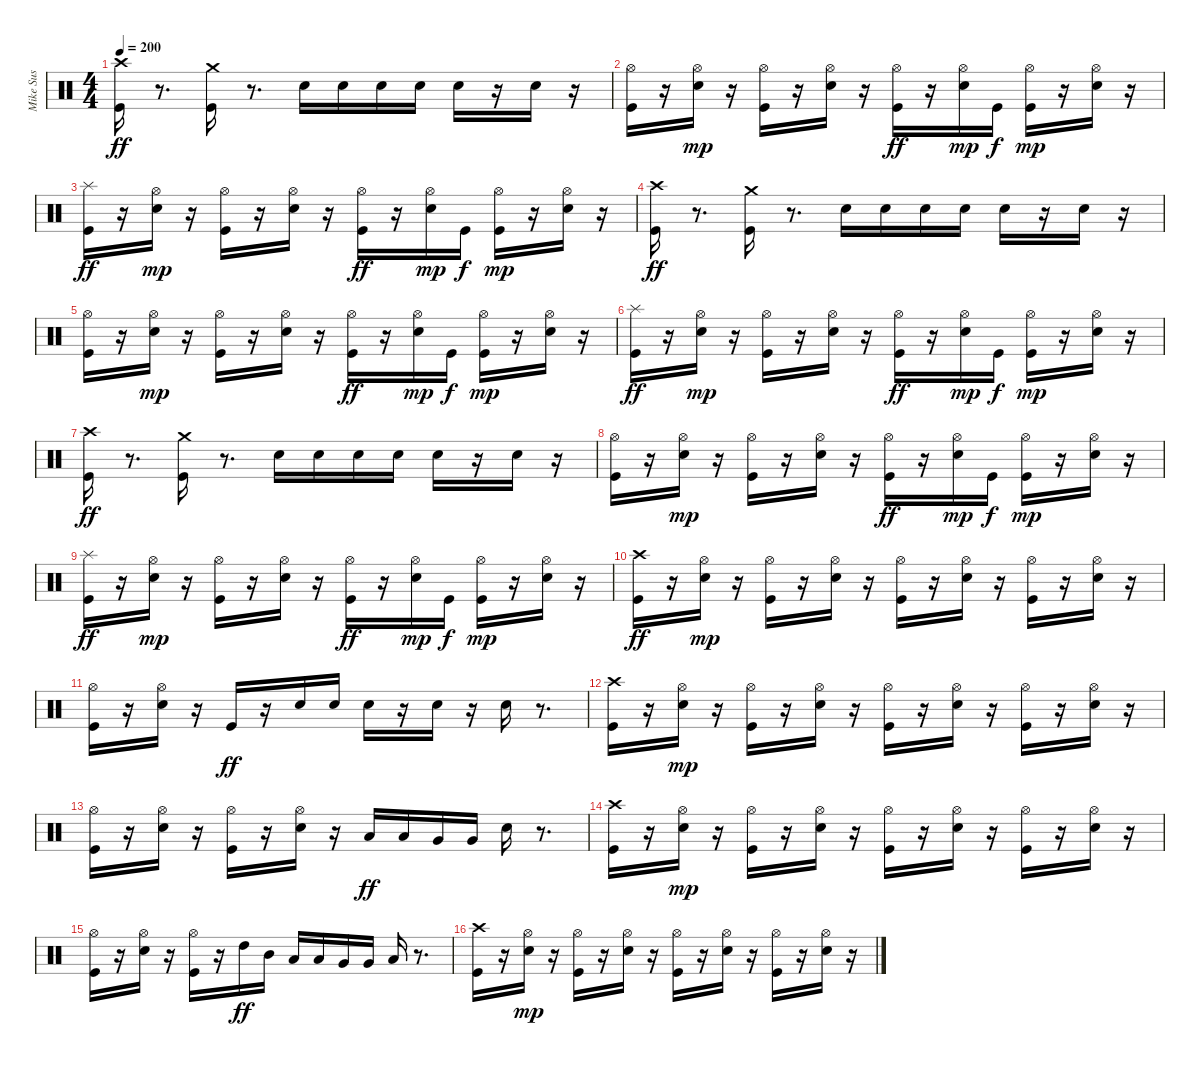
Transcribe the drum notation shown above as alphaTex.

\track ("Mike Sus" "Mike Sus") {instrument percussion}
\staff {score}
\articulation defaults
\ts (4 4)
\tempo 200
\clef neutral
\ks c
("Kick (hit)" "Crash high (hit)").16{dy ff} r.8{d} ("Kick (hit)" "Crash medium (hit)").16 r.8{d} "Snare (hit) 2".16 "Snare (hit) 2".16 "Snare (hit) 2".16 "Snare (hit) 2".16 "Snare (hit) 2".16 r.16 "Snare (hit) 2".16 r.16 |
("Hi-Hat (open)" "Kick (hit)").16 r.16 ("Snare (hit) 2" "Hi-Hat (open)").16{dy mp} r.16 ("Kick (hit)" "Hi-Hat (open)").16 r.16 ("Snare (hit) 2" "Hi-Hat (open)").16 r.16 ("Hi-Hat (open)" "Kick (hit)").16{dy ff} r.16 ("Snare (hit) 2" "Hi-Hat (open)").16{dy mp} "Kick (hit)".16{dy f} ("Hi-Hat (open)" "Kick (hit)").16{dy mp} r.16 ("Snare (hit) 2" "Hi-Hat (open)").16 r.16 |
("Kick (hit)" "Splash (hit)").16{dy ff} r.16 ("Snare (hit) 2" "Hi-Hat (open)").16{dy mp} r.16 ("Kick (hit)" "Hi-Hat (open)").16 r.16 ("Snare (hit) 2" "Hi-Hat (open)").16 r.16 ("Hi-Hat (open)" "Kick (hit)").16{dy ff} r.16 ("Snare (hit) 2" "Hi-Hat (open)").16{dy mp} "Kick (hit)".16{dy f} ("Hi-Hat (open)" "Kick (hit)").16{dy mp} r.16 ("Snare (hit) 2" "Hi-Hat (open)").16 r.16 |
("Kick (hit)" "Crash high (hit)").16{dy ff} r.8{d} ("Kick (hit)" "Crash medium (hit)").16 r.8{d} "Snare (hit) 2".16 "Snare (hit) 2".16 "Snare (hit) 2".16 "Snare (hit) 2".16 "Snare (hit) 2".16 r.16 "Snare (hit) 2".16 r.16 |
("Hi-Hat (open)" "Kick (hit)").16 r.16 ("Snare (hit) 2" "Hi-Hat (open)").16{dy mp} r.16 ("Kick (hit)" "Hi-Hat (open)").16 r.16 ("Snare (hit) 2" "Hi-Hat (open)").16 r.16 ("Hi-Hat (open)" "Kick (hit)").16{dy ff} r.16 ("Snare (hit) 2" "Hi-Hat (open)").16{dy mp} "Kick (hit)".16{dy f} ("Hi-Hat (open)" "Kick (hit)").16{dy mp} r.16 ("Snare (hit) 2" "Hi-Hat (open)").16 r.16 |
("Kick (hit)" "Splash (hit)").16{dy ff} r.16 ("Snare (hit) 2" "Hi-Hat (open)").16{dy mp} r.16 ("Kick (hit)" "Hi-Hat (open)").16 r.16 ("Snare (hit) 2" "Hi-Hat (open)").16 r.16 ("Hi-Hat (open)" "Kick (hit)").16{dy ff} r.16 ("Snare (hit) 2" "Hi-Hat (open)").16{dy mp} "Kick (hit)".16{dy f} ("Hi-Hat (open)" "Kick (hit)").16{dy mp} r.16 ("Snare (hit) 2" "Hi-Hat (open)").16 r.16 |
("Kick (hit)" "Crash high (hit)").16{dy ff} r.8{d} ("Kick (hit)" "Crash medium (hit)").16 r.8{d} "Snare (hit) 2".16 "Snare (hit) 2".16 "Snare (hit) 2".16 "Snare (hit) 2".16 "Snare (hit) 2".16 r.16 "Snare (hit) 2".16 r.16 |
("Hi-Hat (open)" "Kick (hit)").16 r.16 ("Snare (hit) 2" "Hi-Hat (open)").16{dy mp} r.16 ("Kick (hit)" "Hi-Hat (open)").16 r.16 ("Snare (hit) 2" "Hi-Hat (open)").16 r.16 ("Hi-Hat (open)" "Kick (hit)").16{dy ff} r.16 ("Snare (hit) 2" "Hi-Hat (open)").16{dy mp} "Kick (hit)".16{dy f} ("Hi-Hat (open)" "Kick (hit)").16{dy mp} r.16 ("Snare (hit) 2" "Hi-Hat (open)").16 r.16 |
("Kick (hit)" "Splash (hit)").16{dy ff} r.16 ("Snare (hit) 2" "Hi-Hat (open)").16{dy mp} r.16 ("Kick (hit)" "Hi-Hat (open)").16 r.16 ("Snare (hit) 2" "Hi-Hat (open)").16 r.16 ("Hi-Hat (open)" "Kick (hit)").16{dy ff} r.16 ("Snare (hit) 2" "Hi-Hat (open)").16{dy mp} "Kick (hit)".16{dy f} ("Hi-Hat (open)" "Kick (hit)").16{dy mp} r.16 ("Snare (hit) 2" "Hi-Hat (open)").16 r.16 |
("Kick (hit)" "Crash high (hit)").16{dy ff} r.16 ("Snare (hit) 2" "Hi-Hat (open)").16{dy mp} r.16 ("Kick (hit)" "Hi-Hat (open)").16 r.16 ("Snare (hit) 2" "Hi-Hat (open)").16 r.16 ("Kick (hit)" "Hi-Hat (open)").16 r.16 ("Snare (hit) 2" "Hi-Hat (open)").16 r.16 ("Kick (hit)" "Hi-Hat (open)").16 r.16 ("Snare (hit) 2" "Hi-Hat (open)").16 r.16 |
("Kick (hit)" "Hi-Hat (open)").16 r.16 ("Snare (hit) 2" "Hi-Hat (open)").16 r.16 "Kick (hit)".16{dy ff} r.16 "Snare (hit) 2".16 "Snare (hit) 2".16 "Snare (hit) 2".16 r.16 "Snare (hit) 2".16 r.16 "Snare (hit) 2".16 r.8{d} |
("Kick (hit)" "Crash high (hit)").16 r.16 ("Snare (hit) 2" "Hi-Hat (open)").16{dy mp} r.16 ("Kick (hit)" "Hi-Hat (open)").16 r.16 ("Snare (hit) 2" "Hi-Hat (open)").16 r.16 ("Kick (hit)" "Hi-Hat (open)").16 r.16 ("Snare (hit) 2" "Hi-Hat (open)").16 r.16 ("Kick (hit)" "Hi-Hat (open)").16 r.16 ("Snare (hit) 2" "Hi-Hat (open)").16 r.16 |
("Kick (hit)" "Hi-Hat (open)").16 r.16 ("Snare (hit) 2" "Hi-Hat (open)").16 r.16 ("Kick (hit)" "Hi-Hat (open)").16 r.16 ("Snare (hit) 2" "Hi-Hat (open)").16 r.16 "Low Tom (hit)".16{dy ff} "Low Tom (hit)".16 "Very Low Tom (hit)".16 "Very Low Tom (hit)".16 "Snare (hit) 2".16 r.8{d} |
("Kick (hit)" "Crash high (hit)").16 r.16 ("Snare (hit) 2" "Hi-Hat (open)").16{dy mp} r.16 ("Kick (hit)" "Hi-Hat (open)").16 r.16 ("Snare (hit) 2" "Hi-Hat (open)").16 r.16 ("Kick (hit)" "Hi-Hat (open)").16 r.16 ("Snare (hit) 2" "Hi-Hat (open)").16 r.16 ("Kick (hit)" "Hi-Hat (open)").16 r.16 ("Snare (hit) 2" "Hi-Hat (open)").16 r.16 |
("Kick (hit)" "Hi-Hat (open)").16 r.16 ("Snare (hit) 2" "Hi-Hat (open)").16 r.16 ("Kick (hit)" "Hi-Hat (open)").16 r.16 "High Tom (hit)".16{dy ff} "Mid Tom (hit)".16 "Low Tom (hit)".16 "Low Tom (hit)".16 "Very Low Tom (hit)".16 "Very Low Tom (hit)".16 "Low Floor Tom (hit)".16 r.8{d} |
("Kick (hit)" "Crash high (hit)").16 r.16 ("Snare (hit) 2" "Hi-Hat (open)").16{dy mp} r.16 ("Kick (hit)" "Hi-Hat (open)").16 r.16 ("Snare (hit) 2" "Hi-Hat (open)").16 r.16 ("Kick (hit)" "Hi-Hat (open)").16 r.16 ("Snare (hit) 2" "Hi-Hat (open)").16 r.16 ("Kick (hit)" "Hi-Hat (open)").16 r.16 ("Snare (hit) 2" "Hi-Hat (open)").16 r.16
